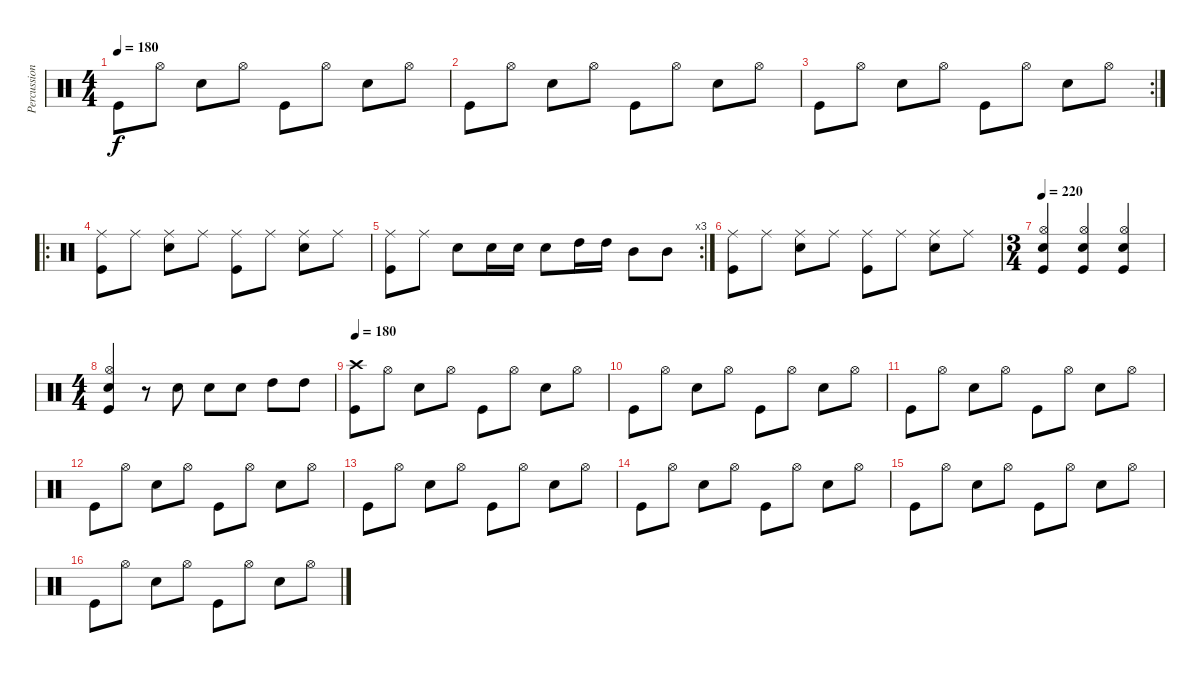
\track ("Percussioni" "Percussion") {instrument percussion}
\staff {score}
\articulation defaults
\ts (4 4)
\tempo 180
\clef neutral
\ks c "Kick (hit)".8{dy f} "Hi-Hat (open)".8 "Snare (hit) 2".8 "Hi-Hat (open)".8 "Kick (hit)".8 "Hi-Hat (open)".8 "Snare (hit) 2".8 "Hi-Hat (open)".8
|
"Kick (hit)".8 "Hi-Hat (open)".8 "Snare (hit) 2".8 "Hi-Hat (open)".8 "Kick (hit)".8 "Hi-Hat (open)".8 "Snare (hit) 2".8 "Hi-Hat (open)".8 |
\rc 2 "Kick (hit)".8 "Hi-Hat (open)".8 "Snare (hit) 2".8 "Hi-Hat (open)".8 "Kick (hit)".8 "Hi-Hat (open)".8 "Snare (hit) 2".8 "Hi-Hat (open)".8
|
\ro
("Ride (middle)" "Kick (hit)").8 "Ride (middle)".8 ("Ride (middle)" "Snare (hit) 2").8 "Ride (middle)".8 ("Ride (middle)" "Kick (hit)").8 "Ride (middle)".8 ("Ride (middle)" "Snare (hit) 2").8 "Ride (middle)".8 |
\rc 3
("Ride (middle)" "Kick (hit)").8 "Ride (middle)".8 "Snare (hit) 2".8 "Snare (hit) 2".16 "Snare (hit) 2".16 "Snare (hit) 2".8 "High Tom (hit)".16 "High Tom (hit)".16 "Mid Tom (hit)".8 "Mid Tom (hit)".8 |
("Ride (middle)" "Kick (hit)").8 "Ride (middle)".8 ("Ride (middle)" "Snare (hit) 2").8 "Ride (middle)".8 ("Ride (middle)" "Kick (hit)").8 "Ride (middle)".8 ("Ride (middle)" "Snare (hit) 2").8 "Ride (middle)".8 |
\ts (3 4)
\tempo 220
("Hi-Hat (open)" "Snare (hit) 2" "Kick (hit)").4 ("Hi-Hat (open)" "Snare (hit) 2" "Kick (hit)").4 ("Hi-Hat (open)" "Snare (hit) 2" "Kick (hit)").4 |
\ts (4 4)
("Hi-Hat (open)" "Snare (hit) 2" "Kick (hit)").4 r.8 "Snare (hit) 2".8 "Snare (hit) 2".8 "Snare (hit) 2".8 "High Tom (hit)".8 "High Tom (hit)".8 |
\tempo 160
\tempo 180
("Crash high (hit)" "Kick (hit)").8 "Hi-Hat (open)".8 "Snare (hit) 2".8 "Hi-Hat (open)".8 "Kick (hit)".8 "Hi-Hat (open)".8 "Snare (hit) 2".8 "Hi-Hat (open)".8 |
"Kick (hit)".8 "Hi-Hat (open)".8 "Snare (hit) 2".8 "Hi-Hat (open)".8 "Kick (hit)".8 "Hi-Hat (open)".8 "Snare (hit) 2".8 "Hi-Hat (open)".8 |
"Kick (hit)".8 "Hi-Hat (open)".8 "Snare (hit) 2".8 "Hi-Hat (open)".8 "Kick (hit)".8 "Hi-Hat (open)".8 "Snare (hit) 2".8 "Hi-Hat (open)".8 |
"Kick (hit)".8 "Hi-Hat (open)".8 "Snare (hit) 2".8 "Hi-Hat (open)".8 "Kick (hit)".8 "Hi-Hat (open)".8 "Snare (hit) 2".8 "Hi-Hat (open)".8 |
"Kick (hit)".8 "Hi-Hat (open)".8 "Snare (hit) 2".8 "Hi-Hat (open)".8 "Kick (hit)".8 "Hi-Hat (open)".8 "Snare (hit) 2".8 "Hi-Hat (open)".8 |
"Kick (hit)".8 "Hi-Hat (open)".8 "Snare (hit) 2".8 "Hi-Hat (open)".8 "Kick (hit)".8 "Hi-Hat (open)".8 "Snare (hit) 2".8 "Hi-Hat (open)".8 |
"Kick (hit)".8 "Hi-Hat (open)".8 "Snare (hit) 2".8 "Hi-Hat (open)".8 "Kick (hit)".8 "Hi-Hat (open)".8 "Snare (hit) 2".8 "Hi-Hat (open)".8 |
"Kick (hit)".8 "Hi-Hat (open)".8 "Snare (hit) 2".8 "Hi-Hat (open)".8 "Kick (hit)".8 "Hi-Hat (open)".8 "Snare (hit) 2".8 "Hi-Hat (open)".8
